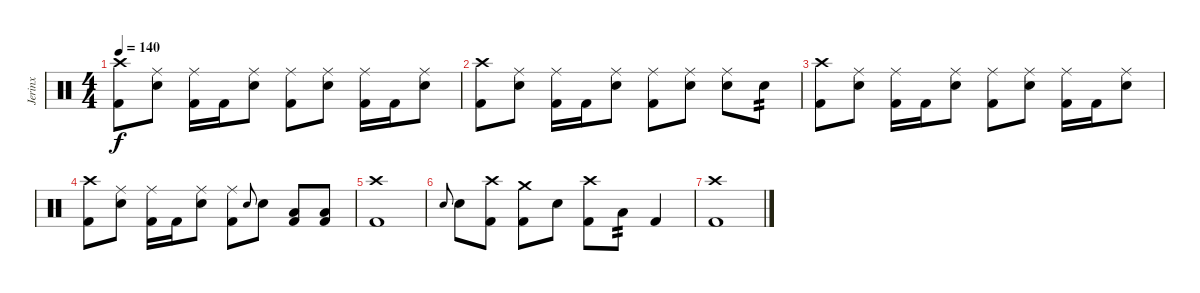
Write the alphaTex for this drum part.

\track ("Jerinx" "Jerinx") {instrument percussion}
\staff {score}
\articulation defaults
\ts (4 4)
\tempo 140
\clef neutral
\ks c
("Crash high (hit)" "Kick (hit) 2").8{dy f} ("Ride (middle)" "Electric Snare (hit)").8 ("Ride (middle)" "Kick (hit) 2").16 "Kick (hit) 2".16 ("Ride (middle)" "Electric Snare (hit)").8 ("Ride (middle)" "Kick (hit) 2").8 ("Ride (middle)" "Electric Snare (hit)").8 ("Ride (middle)" "Kick (hit) 2").16 "Kick (hit) 2".16 ("Ride (middle)" "Electric Snare (hit)").8 |
("Crash high (hit)" "Kick (hit) 2").8 ("Ride (middle)" "Electric Snare (hit)").8 ("Ride (middle)" "Kick (hit) 2").16 "Kick (hit) 2".16 ("Ride (middle)" "Electric Snare (hit)").8 ("Ride (middle)" "Kick (hit) 2").8 ("Ride (middle)" "Electric Snare (hit)").8 ("Ride (middle)" "Electric Snare (hit)").8 "Electric Snare (hit)".8{tp 2} |
("Crash high (hit)" "Kick (hit) 2").8 ("Ride (middle)" "Electric Snare (hit)").8 ("Ride (middle)" "Kick (hit) 2").16 "Kick (hit) 2".16 ("Ride (middle)" "Electric Snare (hit)").8 ("Ride (middle)" "Kick (hit) 2").8 ("Ride (middle)" "Electric Snare (hit)").8 ("Ride (middle)" "Kick (hit) 2").16 "Kick (hit) 2".16 ("Ride (middle)" "Electric Snare (hit)").8 |
("Crash high (hit)" "Kick (hit) 2").8 ("Ride (middle)" "Electric Snare (hit)").8 ("Ride (middle)" "Kick (hit) 2").16 "Kick (hit) 2".16 ("Ride (middle)" "Electric Snare (hit)").8 ("Ride (middle)" "Kick (hit) 2").8 "Electric Snare (hit)".8{gr onbeat} "Electric Snare (hit)".8 ("Low Floor Tom (hit)" "Kick (hit) 2").8 ("Low Floor Tom (hit)" "Kick (hit) 2").8 |
("Crash high (hit)" "Kick (hit) 2").1 |
"Electric Snare (hit)".8{gr onbeat} "Electric Snare (hit)".8 ("Crash high (hit)" "Kick (hit) 2").8 ("Crash medium (hit)" "Kick (hit) 2").8 "Electric Snare (hit)".8 ("Crash high (hit)" "Kick (hit) 2").8 "Low Floor Tom (hit)".8{tp 2} "Kick (hit) 2".4 |
("Crash high (hit)" "Kick (hit) 2").1
